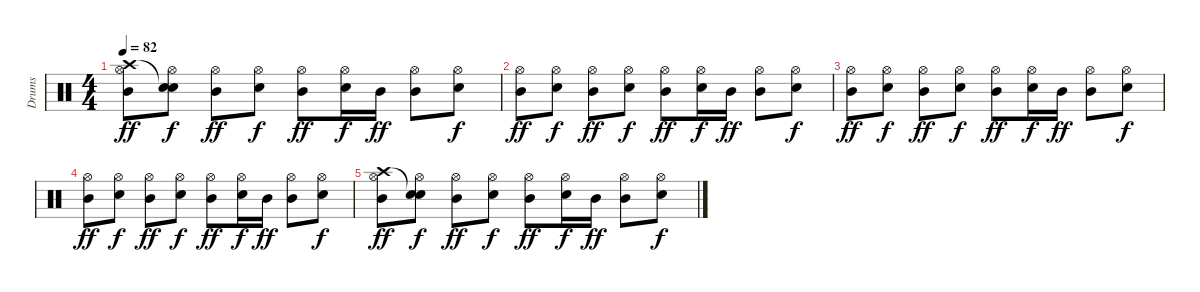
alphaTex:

\track ("Drums" "Drums") {instrument percussion}
\staff {score}
\articulation defaults
\ts (4 4)
\tempo 82
\clef neutral
\ks c
("Hi-Hat (open)" "Crash high (hit)" "Mid Tom (hit)").8{dy ff} ("Hi-Hat (open)" "Snare (hit)"{t} "Electric Snare (hit)").8{dy f} ("Hi-Hat (open)" "Mid Tom (hit)").8{dy ff} ("Hi-Hat (open)" "Electric Snare (hit)").8{dy f} ("Hi-Hat (open)" "Mid Tom (hit)").8{dy ff} ("Hi-Hat (open)" "Electric Snare (hit)").16{dy f} "Mid Tom (hit)".16{dy ff} ("Hi-Hat (open)" "Mid Tom (hit)").8 ("Hi-Hat (open)" "Electric Snare (hit)").8{dy f} |
("Hi-Hat (open)" "Mid Tom (hit)").8{dy ff volume 7} ("Hi-Hat (open)" "Electric Snare (hit)").8{dy f} ("Hi-Hat (open)" "Mid Tom (hit)").8{dy ff} ("Hi-Hat (open)" "Electric Snare (hit)").8{dy f} ("Hi-Hat (open)" "Mid Tom (hit)").8{dy ff} ("Hi-Hat (open)" "Electric Snare (hit)").16{dy f} "Mid Tom (hit)".16{dy ff} ("Hi-Hat (open)" "Mid Tom (hit)").8 ("Hi-Hat (open)" "Electric Snare (hit)").8{dy f} |
("Hi-Hat (open)" "Mid Tom (hit)").8{dy ff} ("Hi-Hat (open)" "Electric Snare (hit)").8{dy f} ("Hi-Hat (open)" "Mid Tom (hit)").8{dy ff} ("Hi-Hat (open)" "Electric Snare (hit)").8{dy f} ("Hi-Hat (open)" "Mid Tom (hit)").8{dy ff} ("Hi-Hat (open)" "Electric Snare (hit)").16{dy f} "Mid Tom (hit)".16{dy ff} ("Hi-Hat (open)" "Mid Tom (hit)").8 ("Hi-Hat (open)" "Electric Snare (hit)").8{dy f} |
("Hi-Hat (open)" "Mid Tom (hit)").8{dy ff volume 0} ("Hi-Hat (open)" "Electric Snare (hit)").8{dy f} ("Hi-Hat (open)" "Mid Tom (hit)").8{dy ff} ("Hi-Hat (open)" "Electric Snare (hit)").8{dy f} ("Hi-Hat (open)" "Mid Tom (hit)").8{dy ff} ("Hi-Hat (open)" "Electric Snare (hit)").16{dy f} "Mid Tom (hit)".16{dy ff} ("Hi-Hat (open)" "Mid Tom (hit)").8 ("Hi-Hat (open)" "Electric Snare (hit)").8{dy f} |
("Hi-Hat (open)" "Crash high (hit)" "Mid Tom (hit)").8{dy ff} ("Hi-Hat (open)" "Snare (hit)"{t} "Electric Snare (hit)").8{dy f} ("Hi-Hat (open)" "Mid Tom (hit)").8{dy ff} ("Hi-Hat (open)" "Electric Snare (hit)").8{dy f} ("Hi-Hat (open)" "Mid Tom (hit)").8{dy ff} ("Hi-Hat (open)" "Electric Snare (hit)").16{dy f} "Mid Tom (hit)".16{dy ff} ("Hi-Hat (open)" "Mid Tom (hit)").8 ("Hi-Hat (open)" "Electric Snare (hit)").8{dy f}
